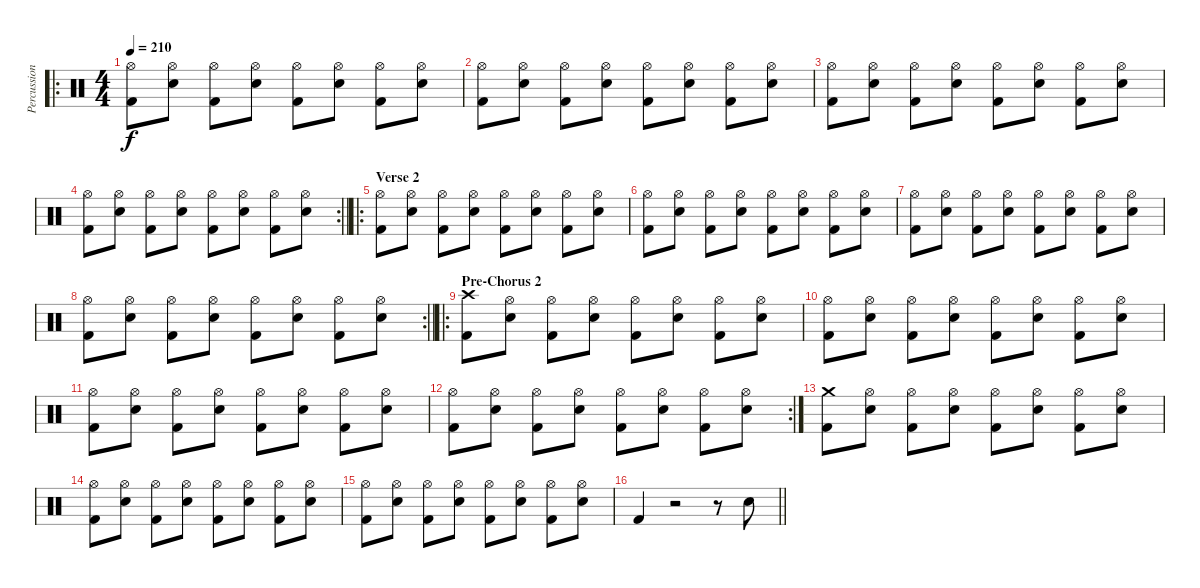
\track ("Percussion" "Percussion") {instrument percussion}
\staff {score}
\articulation defaults
\ro
\ts (4 4)
\tempo 210
\clef neutral
\ks c
("Hi-Hat (open)" "Kick (hit) 2").8{dy f} ("Hi-Hat (open)" "Electric Snare (hit)").8 ("Hi-Hat (open)" "Kick (hit) 2").8 ("Hi-Hat (open)" "Electric Snare (hit)").8 ("Hi-Hat (open)" "Kick (hit) 2").8 ("Hi-Hat (open)" "Electric Snare (hit)").8 ("Hi-Hat (open)" "Kick (hit) 2").8 ("Hi-Hat (open)" "Electric Snare (hit)").8 |
("Hi-Hat (open)" "Kick (hit) 2").8 ("Hi-Hat (open)" "Electric Snare (hit)").8 ("Hi-Hat (open)" "Kick (hit) 2").8 ("Hi-Hat (open)" "Electric Snare (hit)").8 ("Hi-Hat (open)" "Kick (hit) 2").8 ("Hi-Hat (open)" "Electric Snare (hit)").8 ("Hi-Hat (open)" "Kick (hit) 2").8 ("Hi-Hat (open)" "Electric Snare (hit)").8 |
("Hi-Hat (open)" "Kick (hit) 2").8 ("Hi-Hat (open)" "Electric Snare (hit)").8 ("Hi-Hat (open)" "Kick (hit) 2").8 ("Hi-Hat (open)" "Electric Snare (hit)").8 ("Hi-Hat (open)" "Kick (hit) 2").8 ("Hi-Hat (open)" "Electric Snare (hit)").8 ("Hi-Hat (open)" "Kick (hit) 2").8 ("Hi-Hat (open)" "Electric Snare (hit)").8 |
\rc 2
\barLineRight lightlight
("Hi-Hat (open)" "Kick (hit) 2").8 ("Hi-Hat (open)" "Electric Snare (hit)").8 ("Hi-Hat (open)" "Kick (hit) 2").8 ("Hi-Hat (open)" "Electric Snare (hit)").8 ("Hi-Hat (open)" "Kick (hit) 2").8 ("Hi-Hat (open)" "Electric Snare (hit)").8 ("Hi-Hat (open)" "Kick (hit) 2").8 ("Hi-Hat (open)" "Electric Snare (hit)").8 |
\ro
\section ("" "Verse 2")
("Hi-Hat (open)" "Kick (hit) 2").8 ("Hi-Hat (open)" "Electric Snare (hit)").8 ("Hi-Hat (open)" "Kick (hit) 2").8 ("Hi-Hat (open)" "Electric Snare (hit)").8 ("Hi-Hat (open)" "Kick (hit) 2").8 ("Hi-Hat (open)" "Electric Snare (hit)").8 ("Hi-Hat (open)" "Kick (hit) 2").8 ("Hi-Hat (open)" "Electric Snare (hit)").8 |
("Hi-Hat (open)" "Kick (hit) 2").8 ("Hi-Hat (open)" "Electric Snare (hit)").8 ("Hi-Hat (open)" "Kick (hit) 2").8 ("Hi-Hat (open)" "Electric Snare (hit)").8 ("Hi-Hat (open)" "Kick (hit) 2").8 ("Hi-Hat (open)" "Electric Snare (hit)").8 ("Hi-Hat (open)" "Kick (hit) 2").8 ("Hi-Hat (open)" "Electric Snare (hit)").8 |
("Hi-Hat (open)" "Kick (hit) 2").8 ("Hi-Hat (open)" "Electric Snare (hit)").8 ("Hi-Hat (open)" "Kick (hit) 2").8 ("Hi-Hat (open)" "Electric Snare (hit)").8 ("Hi-Hat (open)" "Kick (hit) 2").8 ("Hi-Hat (open)" "Electric Snare (hit)").8 ("Hi-Hat (open)" "Kick (hit) 2").8 ("Hi-Hat (open)" "Electric Snare (hit)").8 |
\rc 2
\barLineRight lightlight
("Hi-Hat (open)" "Kick (hit) 2").8 ("Hi-Hat (open)" "Electric Snare (hit)").8 ("Hi-Hat (open)" "Kick (hit) 2").8 ("Hi-Hat (open)" "Electric Snare (hit)").8 ("Hi-Hat (open)" "Kick (hit) 2").8 ("Hi-Hat (open)" "Electric Snare (hit)").8 ("Hi-Hat (open)" "Kick (hit) 2").8 ("Hi-Hat (open)" "Electric Snare (hit)").8 |
\ro
\section ("" "Pre-Chorus 2")
("Crash high (hit)" "Kick (hit) 2").8 ("Hi-Hat (open)" "Electric Snare (hit)").8 ("Hi-Hat (open)" "Kick (hit) 2").8 ("Hi-Hat (open)" "Electric Snare (hit)").8 ("Hi-Hat (open)" "Kick (hit) 2").8 ("Hi-Hat (open)" "Electric Snare (hit)").8 ("Hi-Hat (open)" "Kick (hit) 2").8 ("Hi-Hat (open)" "Electric Snare (hit)").8 |
("Hi-Hat (open)" "Kick (hit) 2").8 ("Hi-Hat (open)" "Electric Snare (hit)").8 ("Hi-Hat (open)" "Kick (hit) 2").8 ("Hi-Hat (open)" "Electric Snare (hit)").8 ("Hi-Hat (open)" "Kick (hit) 2").8 ("Hi-Hat (open)" "Electric Snare (hit)").8 ("Hi-Hat (open)" "Kick (hit) 2").8 ("Hi-Hat (open)" "Electric Snare (hit)").8 |
("Hi-Hat (open)" "Kick (hit) 2").8 ("Hi-Hat (open)" "Electric Snare (hit)").8 ("Hi-Hat (open)" "Kick (hit) 2").8 ("Hi-Hat (open)" "Electric Snare (hit)").8 ("Hi-Hat (open)" "Kick (hit) 2").8 ("Hi-Hat (open)" "Electric Snare (hit)").8 ("Hi-Hat (open)" "Kick (hit) 2").8 ("Hi-Hat (open)" "Electric Snare (hit)").8 |
\rc 2
("Hi-Hat (open)" "Kick (hit) 2").8 ("Hi-Hat (open)" "Electric Snare (hit)").8 ("Hi-Hat (open)" "Kick (hit) 2").8 ("Hi-Hat (open)" "Electric Snare (hit)").8 ("Hi-Hat (open)" "Kick (hit) 2").8 ("Hi-Hat (open)" "Electric Snare (hit)").8 ("Hi-Hat (open)" "Kick (hit) 2").8 ("Hi-Hat (open)" "Electric Snare (hit)").8 |
("Crash medium (hit)" "Kick (hit) 2").8 ("Hi-Hat (open)" "Electric Snare (hit)").8 ("Hi-Hat (open)" "Kick (hit) 2").8 ("Hi-Hat (open)" "Electric Snare (hit)").8 ("Hi-Hat (open)" "Kick (hit) 2").8 ("Hi-Hat (open)" "Electric Snare (hit)").8 ("Hi-Hat (open)" "Kick (hit) 2").8 ("Hi-Hat (open)" "Electric Snare (hit)").8 |
("Hi-Hat (open)" "Kick (hit) 2").8 ("Hi-Hat (open)" "Electric Snare (hit)").8 ("Hi-Hat (open)" "Kick (hit) 2").8 ("Hi-Hat (open)" "Electric Snare (hit)").8 ("Hi-Hat (open)" "Kick (hit) 2").8 ("Hi-Hat (open)" "Electric Snare (hit)").8 ("Hi-Hat (open)" "Kick (hit) 2").8 ("Hi-Hat (open)" "Electric Snare (hit)").8 |
("Hi-Hat (open)" "Kick (hit) 2").8 ("Hi-Hat (open)" "Electric Snare (hit)").8 ("Hi-Hat (open)" "Kick (hit) 2").8 ("Hi-Hat (open)" "Electric Snare (hit)").8 ("Hi-Hat (open)" "Kick (hit) 2").8 ("Hi-Hat (open)" "Electric Snare (hit)").8 ("Hi-Hat (open)" "Kick (hit) 2").8 ("Hi-Hat (open)" "Electric Snare (hit)").8 |
\barLineRight lightlight "Kick (hit) 2".4
r.2 r.8 "Electric Snare (hit)".8
